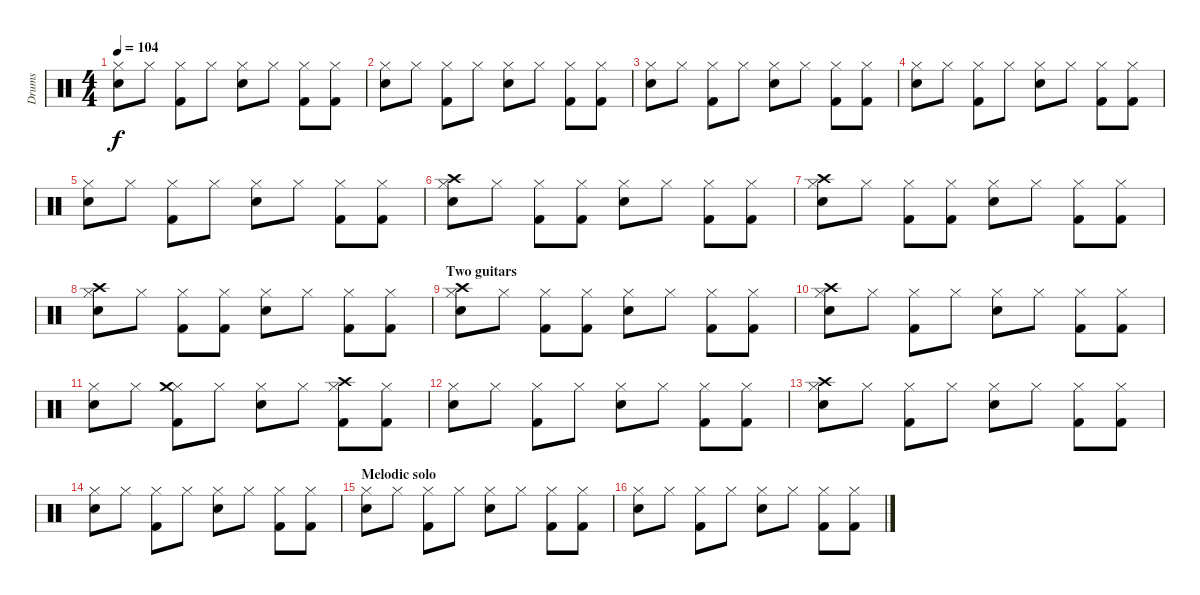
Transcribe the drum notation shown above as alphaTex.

\track ("Drums" "Drums") {instrument percussion}
\staff {score}
\articulation defaults
\ts (4 4)
\tempo 104
\clef neutral
\ks c
("Hi-Hat (closed)" "Snare (hit) 2").8{dy f} "Hi-Hat (closed)".8 ("Hi-Hat (closed)" "Kick (hit) 2").8 "Hi-Hat (closed)".8 ("Hi-Hat (closed)" "Snare (hit) 2").8 "Hi-Hat (closed)".8 ("Hi-Hat (closed)" "Kick (hit) 2").8 ("Hi-Hat (closed)" "Kick (hit) 2").8 |
("Hi-Hat (closed)" "Snare (hit) 2").8 "Hi-Hat (closed)".8 ("Hi-Hat (closed)" "Kick (hit) 2").8 "Hi-Hat (closed)".8 ("Hi-Hat (closed)" "Snare (hit) 2").8 "Hi-Hat (closed)".8 ("Hi-Hat (closed)" "Kick (hit) 2").8 ("Hi-Hat (closed)" "Kick (hit) 2").8 |
("Hi-Hat (closed)" "Snare (hit) 2").8 "Hi-Hat (closed)".8 ("Hi-Hat (closed)" "Kick (hit) 2").8 "Hi-Hat (closed)".8 ("Hi-Hat (closed)" "Snare (hit) 2").8 "Hi-Hat (closed)".8 ("Hi-Hat (closed)" "Kick (hit) 2").8 ("Hi-Hat (closed)" "Kick (hit) 2").8 |
("Hi-Hat (closed)" "Snare (hit) 2").8 "Hi-Hat (closed)".8 ("Hi-Hat (closed)" "Kick (hit) 2").8 "Hi-Hat (closed)".8 ("Hi-Hat (closed)" "Snare (hit) 2").8 "Hi-Hat (closed)".8 ("Hi-Hat (closed)" "Kick (hit) 2").8 ("Hi-Hat (closed)" "Kick (hit) 2").8 |
("Hi-Hat (closed)" "Snare (hit) 2").8 "Hi-Hat (closed)".8 ("Hi-Hat (closed)" "Kick (hit) 2").8 "Hi-Hat (closed)".8 ("Hi-Hat (closed)" "Snare (hit) 2").8 "Hi-Hat (closed)".8 ("Hi-Hat (closed)" "Kick (hit) 2").8 ("Hi-Hat (closed)" "Kick (hit) 2").8 |
("Hi-Hat (closed)" "Snare (hit) 2" "Crash high (hit)").8 "Hi-Hat (closed)".8 ("Hi-Hat (closed)" "Kick (hit) 2").8 ("Hi-Hat (closed)" "Kick (hit) 2").8 ("Hi-Hat (closed)" "Snare (hit) 2").8 "Hi-Hat (closed)".8 ("Hi-Hat (closed)" "Kick (hit) 2").8 ("Hi-Hat (closed)" "Kick (hit) 2").8 |
("Hi-Hat (closed)" "Snare (hit) 2" "Crash high (hit)").8 "Hi-Hat (closed)".8 ("Hi-Hat (closed)" "Kick (hit) 2").8 ("Hi-Hat (closed)" "Kick (hit) 2").8 ("Hi-Hat (closed)" "Snare (hit) 2").8 "Hi-Hat (closed)".8 ("Hi-Hat (closed)" "Kick (hit) 2").8 ("Hi-Hat (closed)" "Kick (hit) 2").8 |
("Hi-Hat (closed)" "Snare (hit) 2" "Crash high (hit)").8 "Hi-Hat (closed)".8 ("Hi-Hat (closed)" "Kick (hit) 2").8 ("Hi-Hat (closed)" "Kick (hit) 2").8 ("Hi-Hat (closed)" "Snare (hit) 2").8 "Hi-Hat (closed)".8 ("Hi-Hat (closed)" "Kick (hit) 2").8 ("Hi-Hat (closed)" "Kick (hit) 2").8 |
\section ("" "Two guitars")
("Hi-Hat (closed)" "Snare (hit) 2" "Crash high (hit)").8 "Hi-Hat (closed)".8 ("Hi-Hat (closed)" "Kick (hit) 2").8 ("Hi-Hat (closed)" "Kick (hit) 2").8 ("Hi-Hat (closed)" "Snare (hit) 2").8 "Hi-Hat (closed)".8 ("Hi-Hat (closed)" "Kick (hit) 2").8 ("Hi-Hat (closed)" "Kick (hit) 2").8 |
("Hi-Hat (closed)" "Snare (hit) 2" "Crash high (hit)").8 "Hi-Hat (closed)".8 ("Hi-Hat (closed)" "Kick (hit) 2").8 "Hi-Hat (closed)".8 ("Hi-Hat (closed)" "Snare (hit) 2").8 "Hi-Hat (closed)".8 ("Hi-Hat (closed)" "Kick (hit) 2").8 ("Hi-Hat (closed)" "Kick (hit) 2").8 |
("Hi-Hat (closed)" "Snare (hit) 2").8 "Hi-Hat (closed)".8 ("Hi-Hat (closed)" "Kick (hit) 2" "Crash medium (hit)").8 "Hi-Hat (closed)".8 ("Hi-Hat (closed)" "Snare (hit) 2").8 "Hi-Hat (closed)".8 ("Hi-Hat (closed)" "Kick (hit) 2" "Crash high (hit)").8 ("Hi-Hat (closed)" "Kick (hit) 2").8 |
("Hi-Hat (closed)" "Snare (hit) 2").8 "Hi-Hat (closed)".8 ("Hi-Hat (closed)" "Kick (hit) 2").8 "Hi-Hat (closed)".8 ("Hi-Hat (closed)" "Snare (hit) 2").8 "Hi-Hat (closed)".8 ("Hi-Hat (closed)" "Kick (hit) 2").8 ("Hi-Hat (closed)" "Kick (hit) 2").8 |
("Hi-Hat (closed)" "Snare (hit) 2" "Crash high (hit)").8 "Hi-Hat (closed)".8 ("Hi-Hat (closed)" "Kick (hit) 2").8 "Hi-Hat (closed)".8 ("Hi-Hat (closed)" "Snare (hit) 2").8 "Hi-Hat (closed)".8 ("Hi-Hat (closed)" "Kick (hit) 2").8 ("Hi-Hat (closed)" "Kick (hit) 2").8 |
("Hi-Hat (closed)" "Snare (hit) 2").8 "Hi-Hat (closed)".8 ("Hi-Hat (closed)" "Kick (hit) 2").8 "Hi-Hat (closed)".8 ("Hi-Hat (closed)" "Snare (hit) 2").8 "Hi-Hat (closed)".8 ("Hi-Hat (closed)" "Kick (hit) 2").8 ("Hi-Hat (closed)" "Kick (hit) 2").8 |
\section ("" "Melodic solo")
("Hi-Hat (closed)" "Snare (hit) 2").8 "Hi-Hat (closed)".8 ("Hi-Hat (closed)" "Kick (hit) 2").8 "Hi-Hat (closed)".8 ("Hi-Hat (closed)" "Snare (hit) 2").8 "Hi-Hat (closed)".8 ("Hi-Hat (closed)" "Kick (hit) 2").8 ("Hi-Hat (closed)" "Kick (hit) 2").8 |
("Hi-Hat (closed)" "Snare (hit) 2").8 "Hi-Hat (closed)".8 ("Hi-Hat (closed)" "Kick (hit) 2").8 "Hi-Hat (closed)".8 ("Hi-Hat (closed)" "Snare (hit) 2").8 "Hi-Hat (closed)".8 ("Hi-Hat (closed)" "Kick (hit) 2").8 ("Hi-Hat (closed)" "Kick (hit) 2").8
